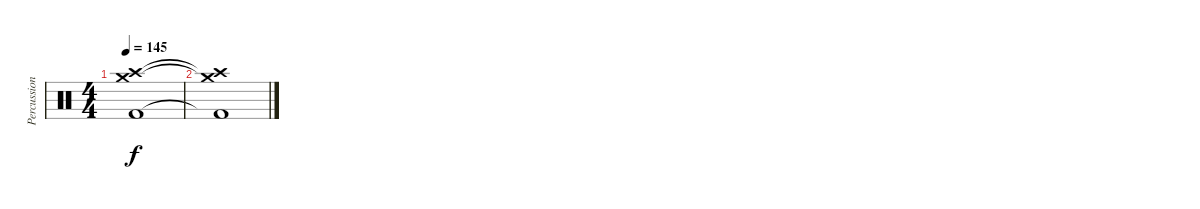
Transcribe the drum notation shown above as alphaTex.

\track ("Percussions" "Percussion") {instrument percussion}
\staff {score}
\articulation defaults
\ts (4 4)
\tempo 145
\clef neutral
\ks c
("Crash medium (hit)"{t} "Crash high (hit)"{t} "Kick (hit) 2"{t}).1{dy f} |
("Crash medium (hit)"{t} "Crash high (hit)"{t} "Kick (hit) 2"{t}).1
